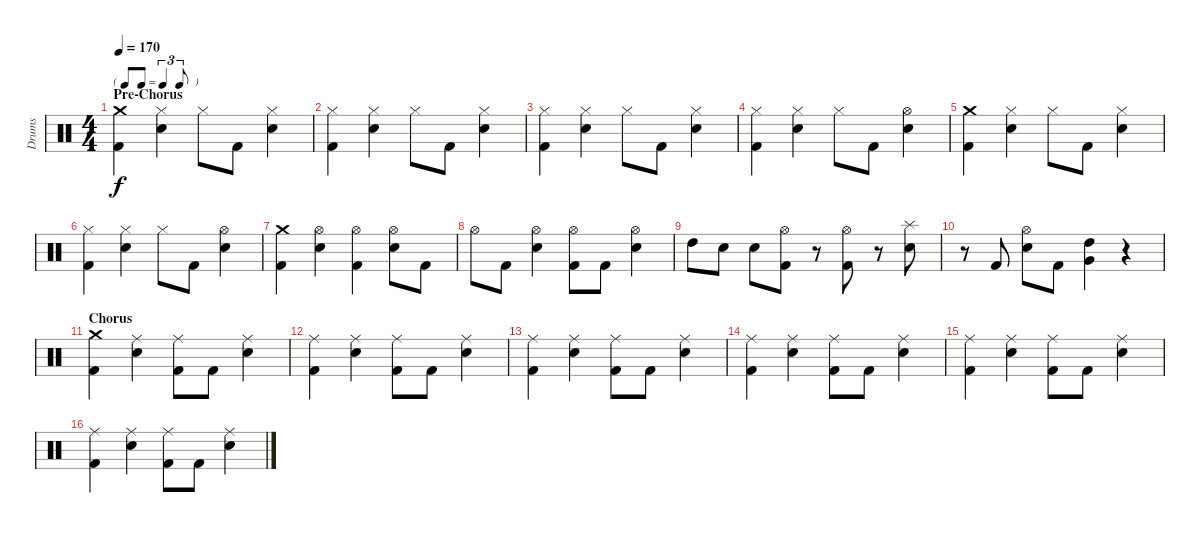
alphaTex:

\track ("Drums" "Drums") {instrument percussion}
\staff {score}
\articulation defaults
\ts (4 4)
\tf triplet8th
\section ("" "Pre-Chorus")
\tempo 170
\clef neutral
\ks c
("Crash medium (hit)" "Kick (hit) 2").4{dy f} ("Hi-Hat (closed)" "Snare (hit) 2").4 "Hi-Hat (closed)".8 "Kick (hit) 2".8 ("Hi-Hat (closed)" "Snare (hit) 2").4 |
("Hi-Hat (closed)" "Kick (hit) 2").4 ("Hi-Hat (closed)" "Snare (hit) 2").4 "Hi-Hat (closed)".8 "Kick (hit) 2".8 ("Hi-Hat (closed)" "Snare (hit) 2").4 |
("Hi-Hat (closed)" "Kick (hit) 2").4 ("Hi-Hat (closed)" "Snare (hit) 2").4 "Hi-Hat (closed)".8 "Kick (hit) 2".8 ("Hi-Hat (closed)" "Snare (hit) 2").4 |
("Hi-Hat (closed)" "Kick (hit) 2").4 ("Hi-Hat (closed)" "Snare (hit) 2").4 "Hi-Hat (closed)".8 "Kick (hit) 2".8 ("Hi-Hat (open)" "Snare (hit) 2").4 |
("Crash medium (hit)" "Kick (hit) 2").4 ("Hi-Hat (closed)" "Snare (hit) 2").4 "Hi-Hat (closed)".8 "Kick (hit) 2".8 ("Hi-Hat (closed)" "Snare (hit) 2").4 |
("Hi-Hat (closed)" "Kick (hit) 2").4 ("Hi-Hat (closed)" "Snare (hit) 2").4 "Hi-Hat (closed)".8 "Kick (hit) 2".8 ("Hi-Hat (open)" "Snare (hit) 2").4 |
("Crash medium (hit)" "Kick (hit) 2").4 ("Hi-Hat (open)" "Snare (hit) 2").4 ("Hi-Hat (open)" "Kick (hit) 2").4 ("Hi-Hat (open)" "Snare (hit) 2").8 "Kick (hit) 2".8 |
"Hi-Hat (open)".8 "Kick (hit) 2".8 ("Hi-Hat (open)" "Snare (hit) 2").4 ("Hi-Hat (open)" "Kick (hit) 2").8 "Kick (hit) 2".8 ("Hi-Hat (open)" "Snare (hit) 2").4 |
"High Tom (hit)".8 "Snare (hit) 2".8 "Snare (hit) 2".8 ("Hi-Hat (open)" "Kick (hit) 2").8 r.8 ("Hi-Hat (open)" "Kick (hit) 2").8 r.8 ("Splash (hit)" "Snare (hit) 2").8 |
r.8 "Kick (hit) 2".8 ("Hi-Hat (open)" "Snare (hit) 2").8 "Kick (hit) 2".8 ("High Tom (hit)" "Very Low Tom (hit)").4 r.4 |
\section ("" "Chorus")
("Crash medium (hit)" "Kick (hit) 2").4 ("Ride (middle)" "Snare (hit) 2").4 ("Ride (middle)" "Kick (hit) 2").8 "Kick (hit) 2".8 ("Ride (middle)" "Snare (hit) 2").4 |
("Ride (middle)" "Kick (hit) 2").4 ("Ride (middle)" "Snare (hit) 2").4 ("Ride (middle)" "Kick (hit) 2").8 "Kick (hit) 2".8 ("Ride (middle)" "Snare (hit) 2").4 |
("Ride (middle)" "Kick (hit) 2").4 ("Ride (middle)" "Snare (hit) 2").4 ("Ride (middle)" "Kick (hit) 2").8 "Kick (hit) 2".8 ("Ride (middle)" "Snare (hit) 2").4 |
("Ride (middle)" "Kick (hit) 2").4 ("Ride (middle)" "Snare (hit) 2").4 ("Ride (middle)" "Kick (hit) 2").8 "Kick (hit) 2".8 ("Ride (middle)" "Snare (hit) 2").4 |
("Ride (middle)" "Kick (hit) 2").4 ("Ride (middle)" "Snare (hit) 2").4 ("Ride (middle)" "Kick (hit) 2").8 "Kick (hit) 2".8 ("Ride (middle)" "Snare (hit) 2").4 |
("Ride (middle)" "Kick (hit) 2").4 ("Ride (middle)" "Snare (hit) 2").4 ("Ride (middle)" "Kick (hit) 2").8 "Kick (hit) 2".8 ("Ride (middle)" "Snare (hit) 2").4
